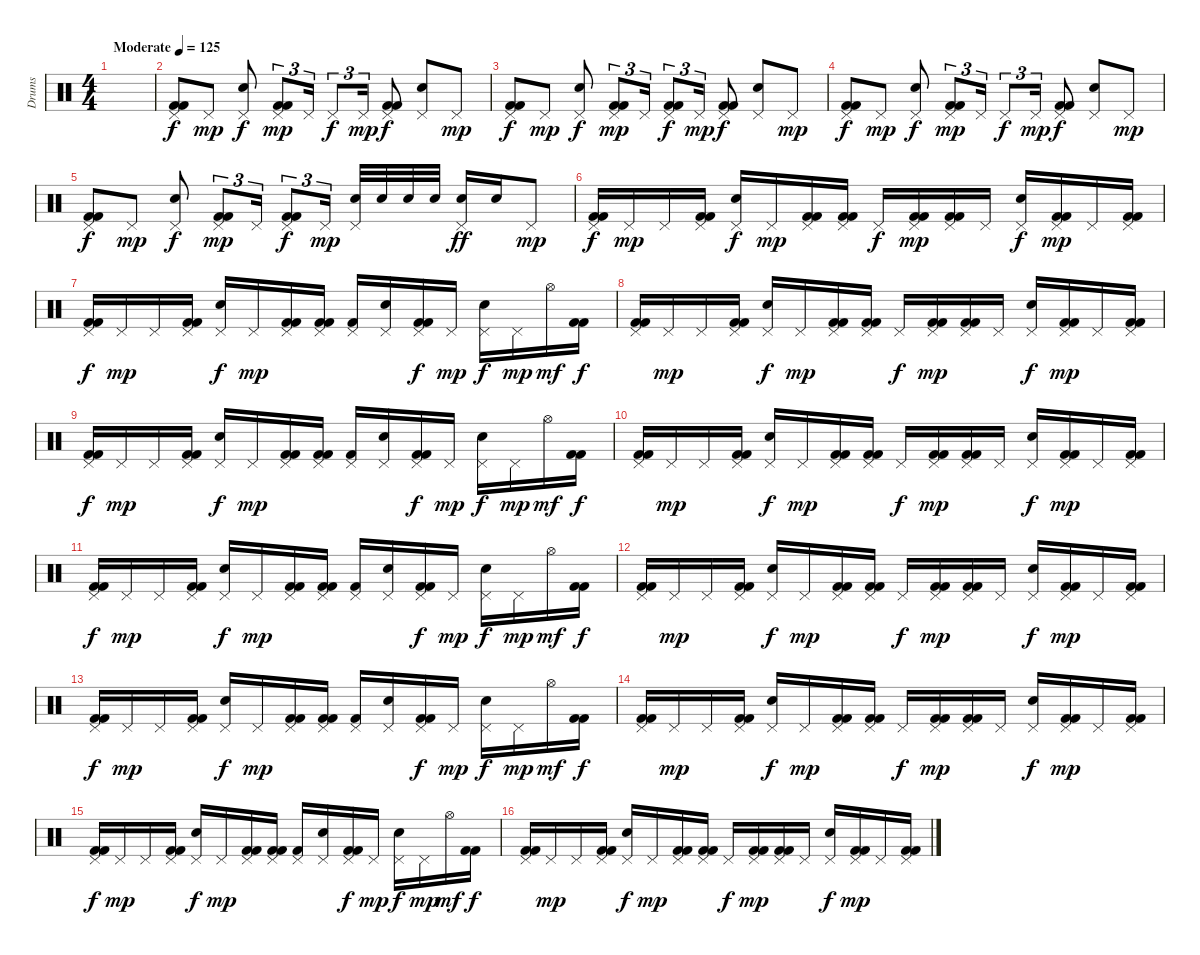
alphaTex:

\track ("Drums" "Drums") {instrument percussion}
\staff {score}
\articulation defaults
\ts (4 4)
\tempo (125 "Moderate")
\clef neutral
\ks c
|
("Pedal Hi-Hat (hit)" "Kick (hit) 2" "Kick (hit) 2").8 "Pedal Hi-Hat (hit)".8{dy mp} ("Pedal Hi-Hat (hit)" "Electric Snare (hit)").8{dy f} ("Pedal Hi-Hat (hit)" "Kick (hit) 2" "Kick (hit) 2").8{tu (3 2) dy mp} "Pedal Hi-Hat (hit)".16{tu (3 2)} "Pedal Hi-Hat (hit)".8{tu (3 2) dy f} "Pedal Hi-Hat (hit)".16{tu (3 2) dy mp} ("Pedal Hi-Hat (hit)" "Kick (hit) 2" "Kick (hit) 2").8{dy f} ("Pedal Hi-Hat (hit)" "Electric Snare (hit)").8 "Pedal Hi-Hat (hit)".8{dy mp} |
("Pedal Hi-Hat (hit)" "Kick (hit) 2" "Kick (hit) 2").8{dy f} "Pedal Hi-Hat (hit)".8{dy mp} ("Pedal Hi-Hat (hit)" "Electric Snare (hit)").8{dy f} ("Pedal Hi-Hat (hit)" "Kick (hit) 2" "Kick (hit) 2").8{tu (3 2) dy mp} "Pedal Hi-Hat (hit)".16{tu (3 2)} ("Pedal Hi-Hat (hit)" "Kick (hit) 2" "Kick (hit) 2").8{tu (3 2) dy f} "Pedal Hi-Hat (hit)".16{tu (3 2) dy mp} ("Pedal Hi-Hat (hit)" "Kick (hit) 2" "Kick (hit) 2").8{dy f} ("Pedal Hi-Hat (hit)" "Electric Snare (hit)").8 "Pedal Hi-Hat (hit)".8{dy mp} |
("Pedal Hi-Hat (hit)" "Kick (hit) 2" "Kick (hit) 2").8{dy f} "Pedal Hi-Hat (hit)".8{dy mp} ("Pedal Hi-Hat (hit)" "Electric Snare (hit)").8{dy f} ("Pedal Hi-Hat (hit)" "Kick (hit) 2" "Kick (hit) 2").8{tu (3 2) dy mp} "Pedal Hi-Hat (hit)".16{tu (3 2)} "Pedal Hi-Hat (hit)".8{tu (3 2) dy f} "Pedal Hi-Hat (hit)".16{tu (3 2) dy mp} ("Pedal Hi-Hat (hit)" "Kick (hit) 2" "Kick (hit) 2").8{dy f} ("Pedal Hi-Hat (hit)" "Electric Snare (hit)").8 "Pedal Hi-Hat (hit)".8{dy mp} |
("Pedal Hi-Hat (hit)" "Kick (hit) 2" "Kick (hit) 2").8{dy f} "Pedal Hi-Hat (hit)".8{dy mp} ("Pedal Hi-Hat (hit)" "Electric Snare (hit)").8{dy f} ("Pedal Hi-Hat (hit)" "Kick (hit) 2" "Kick (hit) 2").8{tu (3 2) dy mp} "Pedal Hi-Hat (hit)".16{tu (3 2)} ("Pedal Hi-Hat (hit)" "Kick (hit) 2" "Kick (hit) 2").8{tu (3 2) dy f} "Pedal Hi-Hat (hit)".16{tu (3 2) dy mp beam splitsecondary} ("Pedal Hi-Hat (hit)" "Electric Snare (hit)").32 "Electric Snare (hit)".32 "Electric Snare (hit)".32 "Electric Snare (hit)".32 ("Pedal Hi-Hat (hit)" "Electric Snare (hit)").16{dy ff} "Electric Snare (hit)".16 "Pedal Hi-Hat (hit)".8{dy mp} |
("Pedal Hi-Hat (hit)" "Kick (hit) 2" "Kick (hit) 2").16{dy f} "Pedal Hi-Hat (hit)".16{dy mp} "Pedal Hi-Hat (hit)".16 ("Pedal Hi-Hat (hit)" "Kick (hit) 2" "Kick (hit) 2").16 ("Pedal Hi-Hat (hit)" "Electric Snare (hit)").16{dy f} "Pedal Hi-Hat (hit)".16{dy mp} ("Pedal Hi-Hat (hit)" "Kick (hit) 2" "Kick (hit) 2").16 ("Pedal Hi-Hat (hit)" "Kick (hit) 2" "Kick (hit) 2").16 "Pedal Hi-Hat (hit)".16{dy f} ("Pedal Hi-Hat (hit)" "Kick (hit) 2" "Kick (hit) 2").16{dy mp} ("Pedal Hi-Hat (hit)" "Kick (hit) 2" "Kick (hit) 2").16 "Pedal Hi-Hat (hit)".16 ("Pedal Hi-Hat (hit)" "Electric Snare (hit)").16{dy f} ("Pedal Hi-Hat (hit)" "Kick (hit) 2" "Kick (hit) 2").16{dy mp} "Pedal Hi-Hat (hit)".16 ("Pedal Hi-Hat (hit)" "Kick (hit) 2" "Kick (hit) 2").16 |
("Pedal Hi-Hat (hit)" "Kick (hit) 2" "Kick (hit) 2").16{dy f} "Pedal Hi-Hat (hit)".16{dy mp} "Pedal Hi-Hat (hit)".16 ("Pedal Hi-Hat (hit)" "Kick (hit) 2" "Kick (hit) 2").16 ("Pedal Hi-Hat (hit)" "Electric Snare (hit)").16{dy f} "Pedal Hi-Hat (hit)".16{dy mp} ("Pedal Hi-Hat (hit)" "Kick (hit) 2" "Kick (hit) 2").16 ("Pedal Hi-Hat (hit)" "Kick (hit) 2" "Kick (hit) 2").16 ("Pedal Hi-Hat (hit)" "Kick (hit) 2").16 ("Pedal Hi-Hat (hit)" "Electric Snare (hit)").16 ("Pedal Hi-Hat (hit)" "Kick (hit) 2" "Kick (hit) 2").16{dy f} "Pedal Hi-Hat (hit)".16{dy mp} ("Pedal Hi-Hat (hit)" "Electric Snare (hit)").16{dy f} "Pedal Hi-Hat (hit)".16{dy mp} "Hi-Hat (open)".16{dy mf} ("Kick (hit) 2" "Kick (hit) 2").16{dy f} |
("Pedal Hi-Hat (hit)" "Kick (hit) 2" "Kick (hit) 2").16 "Pedal Hi-Hat (hit)".16{dy mp} "Pedal Hi-Hat (hit)".16 ("Pedal Hi-Hat (hit)" "Kick (hit) 2" "Kick (hit) 2").16 ("Pedal Hi-Hat (hit)" "Electric Snare (hit)").16{dy f} "Pedal Hi-Hat (hit)".16{dy mp} ("Pedal Hi-Hat (hit)" "Kick (hit) 2" "Kick (hit) 2").16 ("Pedal Hi-Hat (hit)" "Kick (hit) 2" "Kick (hit) 2").16 "Pedal Hi-Hat (hit)".16{dy f} ("Pedal Hi-Hat (hit)" "Kick (hit) 2" "Kick (hit) 2").16{dy mp} ("Pedal Hi-Hat (hit)" "Kick (hit) 2" "Kick (hit) 2").16 "Pedal Hi-Hat (hit)".16 ("Pedal Hi-Hat (hit)" "Electric Snare (hit)").16{dy f} ("Pedal Hi-Hat (hit)" "Kick (hit) 2" "Kick (hit) 2").16{dy mp} "Pedal Hi-Hat (hit)".16 ("Pedal Hi-Hat (hit)" "Kick (hit) 2" "Kick (hit) 2").16 |
("Pedal Hi-Hat (hit)" "Kick (hit) 2" "Kick (hit) 2").16{dy f} "Pedal Hi-Hat (hit)".16{dy mp} "Pedal Hi-Hat (hit)".16 ("Pedal Hi-Hat (hit)" "Kick (hit) 2" "Kick (hit) 2").16 ("Pedal Hi-Hat (hit)" "Electric Snare (hit)").16{dy f} "Pedal Hi-Hat (hit)".16{dy mp} ("Pedal Hi-Hat (hit)" "Kick (hit) 2" "Kick (hit) 2").16 ("Pedal Hi-Hat (hit)" "Kick (hit) 2" "Kick (hit) 2").16 ("Pedal Hi-Hat (hit)" "Kick (hit) 2").16 ("Pedal Hi-Hat (hit)" "Electric Snare (hit)").16 ("Pedal Hi-Hat (hit)" "Kick (hit) 2" "Kick (hit) 2").16{dy f} "Pedal Hi-Hat (hit)".16{dy mp} ("Pedal Hi-Hat (hit)" "Electric Snare (hit)").16{dy f} "Pedal Hi-Hat (hit)".16{dy mp} "Hi-Hat (open)".16{dy mf} ("Kick (hit) 2" "Kick (hit) 2").16{dy f} |
("Pedal Hi-Hat (hit)" "Kick (hit) 2" "Kick (hit) 2").16 "Pedal Hi-Hat (hit)".16{dy mp} "Pedal Hi-Hat (hit)".16 ("Pedal Hi-Hat (hit)" "Kick (hit) 2" "Kick (hit) 2").16 ("Pedal Hi-Hat (hit)" "Electric Snare (hit)").16{dy f} "Pedal Hi-Hat (hit)".16{dy mp} ("Pedal Hi-Hat (hit)" "Kick (hit) 2" "Kick (hit) 2").16 ("Pedal Hi-Hat (hit)" "Kick (hit) 2" "Kick (hit) 2").16 "Pedal Hi-Hat (hit)".16{dy f} ("Pedal Hi-Hat (hit)" "Kick (hit) 2" "Kick (hit) 2").16{dy mp} ("Pedal Hi-Hat (hit)" "Kick (hit) 2" "Kick (hit) 2").16 "Pedal Hi-Hat (hit)".16 ("Pedal Hi-Hat (hit)" "Electric Snare (hit)").16{dy f} ("Pedal Hi-Hat (hit)" "Kick (hit) 2" "Kick (hit) 2").16{dy mp} "Pedal Hi-Hat (hit)".16 ("Pedal Hi-Hat (hit)" "Kick (hit) 2" "Kick (hit) 2").16 |
("Pedal Hi-Hat (hit)" "Kick (hit) 2" "Kick (hit) 2").16{dy f} "Pedal Hi-Hat (hit)".16{dy mp} "Pedal Hi-Hat (hit)".16 ("Pedal Hi-Hat (hit)" "Kick (hit) 2" "Kick (hit) 2").16 ("Pedal Hi-Hat (hit)" "Electric Snare (hit)").16{dy f} "Pedal Hi-Hat (hit)".16{dy mp} ("Pedal Hi-Hat (hit)" "Kick (hit) 2" "Kick (hit) 2").16 ("Pedal Hi-Hat (hit)" "Kick (hit) 2" "Kick (hit) 2").16 ("Pedal Hi-Hat (hit)" "Kick (hit) 2").16 ("Pedal Hi-Hat (hit)" "Electric Snare (hit)").16 ("Pedal Hi-Hat (hit)" "Kick (hit) 2" "Kick (hit) 2").16{dy f} "Pedal Hi-Hat (hit)".16{dy mp} ("Pedal Hi-Hat (hit)" "Electric Snare (hit)").16{dy f} "Pedal Hi-Hat (hit)".16{dy mp} "Hi-Hat (open)".16{dy mf} ("Kick (hit) 2" "Kick (hit) 2").16{dy f} |
("Pedal Hi-Hat (hit)" "Kick (hit) 2" "Kick (hit) 2").16 "Pedal Hi-Hat (hit)".16{dy mp} "Pedal Hi-Hat (hit)".16 ("Pedal Hi-Hat (hit)" "Kick (hit) 2" "Kick (hit) 2").16 ("Pedal Hi-Hat (hit)" "Electric Snare (hit)").16{dy f} "Pedal Hi-Hat (hit)".16{dy mp} ("Pedal Hi-Hat (hit)" "Kick (hit) 2" "Kick (hit) 2").16 ("Pedal Hi-Hat (hit)" "Kick (hit) 2" "Kick (hit) 2").16 "Pedal Hi-Hat (hit)".16{dy f} ("Pedal Hi-Hat (hit)" "Kick (hit) 2" "Kick (hit) 2").16{dy mp} ("Pedal Hi-Hat (hit)" "Kick (hit) 2" "Kick (hit) 2").16 "Pedal Hi-Hat (hit)".16 ("Pedal Hi-Hat (hit)" "Electric Snare (hit)").16{dy f} ("Pedal Hi-Hat (hit)" "Kick (hit) 2" "Kick (hit) 2").16{dy mp} "Pedal Hi-Hat (hit)".16 ("Pedal Hi-Hat (hit)" "Kick (hit) 2" "Kick (hit) 2").16 |
("Pedal Hi-Hat (hit)" "Kick (hit) 2" "Kick (hit) 2").16{dy f} "Pedal Hi-Hat (hit)".16{dy mp} "Pedal Hi-Hat (hit)".16 ("Pedal Hi-Hat (hit)" "Kick (hit) 2" "Kick (hit) 2").16 ("Pedal Hi-Hat (hit)" "Electric Snare (hit)").16{dy f} "Pedal Hi-Hat (hit)".16{dy mp} ("Pedal Hi-Hat (hit)" "Kick (hit) 2" "Kick (hit) 2").16 ("Pedal Hi-Hat (hit)" "Kick (hit) 2" "Kick (hit) 2").16 ("Pedal Hi-Hat (hit)" "Kick (hit) 2").16 ("Pedal Hi-Hat (hit)" "Electric Snare (hit)").16 ("Pedal Hi-Hat (hit)" "Kick (hit) 2" "Kick (hit) 2").16{dy f} "Pedal Hi-Hat (hit)".16{dy mp} ("Pedal Hi-Hat (hit)" "Electric Snare (hit)").16{dy f} "Pedal Hi-Hat (hit)".16{dy mp} "Hi-Hat (open)".16{dy mf} ("Kick (hit) 2" "Kick (hit) 2").16{dy f} |
("Pedal Hi-Hat (hit)" "Kick (hit) 2" "Kick (hit) 2").16 "Pedal Hi-Hat (hit)".16{dy mp} "Pedal Hi-Hat (hit)".16 ("Pedal Hi-Hat (hit)" "Kick (hit) 2" "Kick (hit) 2").16 ("Pedal Hi-Hat (hit)" "Electric Snare (hit)").16{dy f} "Pedal Hi-Hat (hit)".16{dy mp} ("Pedal Hi-Hat (hit)" "Kick (hit) 2" "Kick (hit) 2").16 ("Pedal Hi-Hat (hit)" "Kick (hit) 2" "Kick (hit) 2").16 "Pedal Hi-Hat (hit)".16{dy f} ("Pedal Hi-Hat (hit)" "Kick (hit) 2" "Kick (hit) 2").16{dy mp} ("Pedal Hi-Hat (hit)" "Kick (hit) 2" "Kick (hit) 2").16 "Pedal Hi-Hat (hit)".16 ("Pedal Hi-Hat (hit)" "Electric Snare (hit)").16{dy f} ("Pedal Hi-Hat (hit)" "Kick (hit) 2" "Kick (hit) 2").16{dy mp} "Pedal Hi-Hat (hit)".16 ("Pedal Hi-Hat (hit)" "Kick (hit) 2" "Kick (hit) 2").16 |
("Pedal Hi-Hat (hit)" "Kick (hit) 2" "Kick (hit) 2").16{dy f} "Pedal Hi-Hat (hit)".16{dy mp} "Pedal Hi-Hat (hit)".16 ("Pedal Hi-Hat (hit)" "Kick (hit) 2" "Kick (hit) 2").16 ("Pedal Hi-Hat (hit)" "Electric Snare (hit)").16{dy f} "Pedal Hi-Hat (hit)".16{dy mp} ("Pedal Hi-Hat (hit)" "Kick (hit) 2" "Kick (hit) 2").16 ("Pedal Hi-Hat (hit)" "Kick (hit) 2" "Kick (hit) 2").16 ("Pedal Hi-Hat (hit)" "Kick (hit) 2").16 ("Pedal Hi-Hat (hit)" "Electric Snare (hit)").16 ("Pedal Hi-Hat (hit)" "Kick (hit) 2" "Kick (hit) 2").16{dy f} "Pedal Hi-Hat (hit)".16{dy mp} ("Pedal Hi-Hat (hit)" "Electric Snare (hit)").16{dy f} "Pedal Hi-Hat (hit)".16{dy mp} "Hi-Hat (open)".16{dy mf} ("Kick (hit) 2" "Kick (hit) 2").16{dy f} |
("Pedal Hi-Hat (hit)" "Kick (hit) 2" "Kick (hit) 2").16 "Pedal Hi-Hat (hit)".16{dy mp} "Pedal Hi-Hat (hit)".16 ("Pedal Hi-Hat (hit)" "Kick (hit) 2" "Kick (hit) 2").16 ("Pedal Hi-Hat (hit)" "Electric Snare (hit)").16{dy f} "Pedal Hi-Hat (hit)".16{dy mp} ("Pedal Hi-Hat (hit)" "Kick (hit) 2" "Kick (hit) 2").16 ("Pedal Hi-Hat (hit)" "Kick (hit) 2" "Kick (hit) 2").16 "Pedal Hi-Hat (hit)".16{dy f} ("Pedal Hi-Hat (hit)" "Kick (hit) 2" "Kick (hit) 2").16{dy mp} ("Pedal Hi-Hat (hit)" "Kick (hit) 2" "Kick (hit) 2").16 "Pedal Hi-Hat (hit)".16 ("Pedal Hi-Hat (hit)" "Electric Snare (hit)").16{dy f} ("Pedal Hi-Hat (hit)" "Kick (hit) 2" "Kick (hit) 2").16{dy mp} "Pedal Hi-Hat (hit)".16 ("Pedal Hi-Hat (hit)" "Kick (hit) 2" "Kick (hit) 2").16
